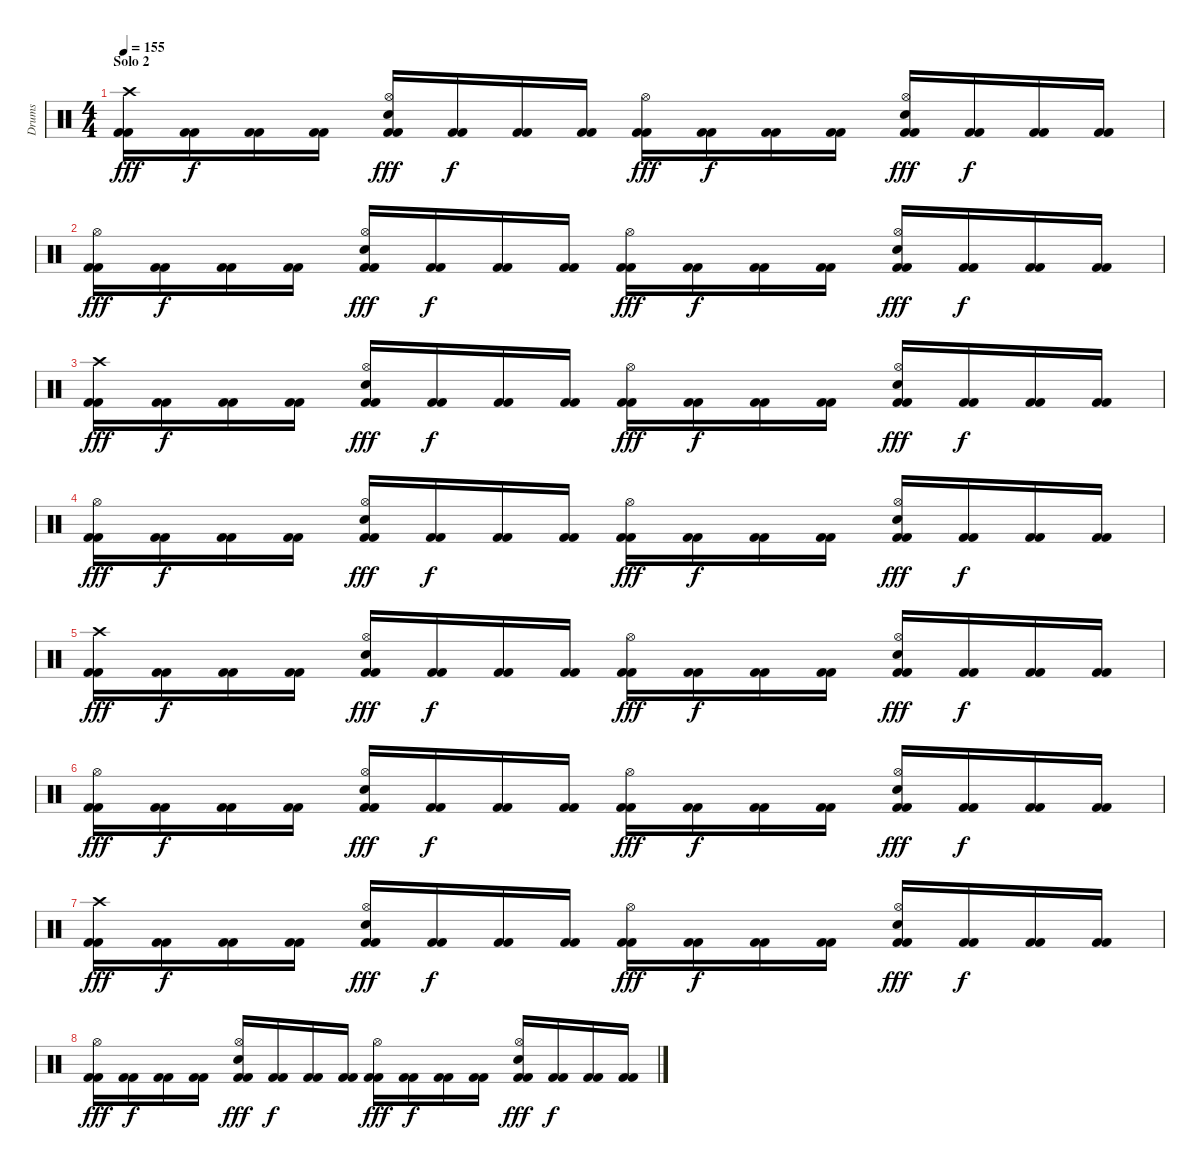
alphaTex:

\track ("Drums" "Drums") {instrument percussion}
\staff {score}
\articulation defaults
\ts (4 4)
\section ("" "Solo 2")
\tempo 155
\clef neutral
\ks c
("Crash high (hit)" "Kick (hit) 2" "Kick (hit) 2").16{dy fff} ("Kick (hit) 2" "Kick (hit) 2").16{dy f} ("Kick (hit) 2" "Kick (hit) 2").16 ("Kick (hit) 2" "Kick (hit) 2").16 ("Hi-Hat (open)" "Kick (hit) 2" "Kick (hit) 2" "Snare (hit) 2").16{dy fff} ("Kick (hit) 2" "Kick (hit) 2").16{dy f} ("Kick (hit) 2" "Kick (hit) 2").16 ("Kick (hit) 2" "Kick (hit) 2").16 ("Hi-Hat (open)" "Kick (hit) 2" "Kick (hit) 2").16{dy fff} ("Kick (hit) 2" "Kick (hit) 2").16{dy f} ("Kick (hit) 2" "Kick (hit) 2").16 ("Kick (hit) 2" "Kick (hit) 2").16 ("Hi-Hat (open)" "Kick (hit) 2" "Kick (hit) 2" "Snare (hit) 2").16{dy fff} ("Kick (hit) 2" "Kick (hit) 2").16{dy f} ("Kick (hit) 2" "Kick (hit) 2").16 ("Kick (hit) 2" "Kick (hit) 2").16 |
("Hi-Hat (open)" "Kick (hit) 2" "Kick (hit) 2").16{dy fff} ("Kick (hit) 2" "Kick (hit) 2").16{dy f} ("Kick (hit) 2" "Kick (hit) 2").16 ("Kick (hit) 2" "Kick (hit) 2").16 ("Hi-Hat (open)" "Kick (hit) 2" "Kick (hit) 2" "Snare (hit) 2").16{dy fff} ("Kick (hit) 2" "Kick (hit) 2").16{dy f} ("Kick (hit) 2" "Kick (hit) 2").16 ("Kick (hit) 2" "Kick (hit) 2").16 ("Hi-Hat (open)" "Kick (hit) 2" "Kick (hit) 2").16{dy fff} ("Kick (hit) 2" "Kick (hit) 2").16{dy f} ("Kick (hit) 2" "Kick (hit) 2").16 ("Kick (hit) 2" "Kick (hit) 2").16 ("Hi-Hat (open)" "Kick (hit) 2" "Kick (hit) 2" "Snare (hit) 2").16{dy fff} ("Kick (hit) 2" "Kick (hit) 2").16{dy f} ("Kick (hit) 2" "Kick (hit) 2").16 ("Kick (hit) 2" "Kick (hit) 2").16 |
("Crash high (hit)" "Kick (hit) 2" "Kick (hit) 2").16{dy fff} ("Kick (hit) 2" "Kick (hit) 2").16{dy f} ("Kick (hit) 2" "Kick (hit) 2").16 ("Kick (hit) 2" "Kick (hit) 2").16 ("Hi-Hat (open)" "Kick (hit) 2" "Kick (hit) 2" "Snare (hit) 2").16{dy fff} ("Kick (hit) 2" "Kick (hit) 2").16{dy f} ("Kick (hit) 2" "Kick (hit) 2").16 ("Kick (hit) 2" "Kick (hit) 2").16 ("Hi-Hat (open)" "Kick (hit) 2" "Kick (hit) 2").16{dy fff} ("Kick (hit) 2" "Kick (hit) 2").16{dy f} ("Kick (hit) 2" "Kick (hit) 2").16 ("Kick (hit) 2" "Kick (hit) 2").16 ("Hi-Hat (open)" "Kick (hit) 2" "Kick (hit) 2" "Snare (hit) 2").16{dy fff} ("Kick (hit) 2" "Kick (hit) 2").16{dy f} ("Kick (hit) 2" "Kick (hit) 2").16 ("Kick (hit) 2" "Kick (hit) 2").16 |
("Hi-Hat (open)" "Kick (hit) 2" "Kick (hit) 2").16{dy fff} ("Kick (hit) 2" "Kick (hit) 2").16{dy f} ("Kick (hit) 2" "Kick (hit) 2").16 ("Kick (hit) 2" "Kick (hit) 2").16 ("Hi-Hat (open)" "Kick (hit) 2" "Kick (hit) 2" "Snare (hit) 2").16{dy fff} ("Kick (hit) 2" "Kick (hit) 2").16{dy f} ("Kick (hit) 2" "Kick (hit) 2").16 ("Kick (hit) 2" "Kick (hit) 2").16 ("Hi-Hat (open)" "Kick (hit) 2" "Kick (hit) 2").16{dy fff} ("Kick (hit) 2" "Kick (hit) 2").16{dy f} ("Kick (hit) 2" "Kick (hit) 2").16 ("Kick (hit) 2" "Kick (hit) 2").16 ("Hi-Hat (open)" "Kick (hit) 2" "Kick (hit) 2" "Snare (hit) 2").16{dy fff} ("Kick (hit) 2" "Kick (hit) 2").16{dy f} ("Kick (hit) 2" "Kick (hit) 2").16 ("Kick (hit) 2" "Kick (hit) 2").16 |
("Crash high (hit)" "Kick (hit) 2" "Kick (hit) 2").16{dy fff} ("Kick (hit) 2" "Kick (hit) 2").16{dy f} ("Kick (hit) 2" "Kick (hit) 2").16 ("Kick (hit) 2" "Kick (hit) 2").16 ("Hi-Hat (open)" "Kick (hit) 2" "Kick (hit) 2" "Snare (hit) 2").16{dy fff} ("Kick (hit) 2" "Kick (hit) 2").16{dy f} ("Kick (hit) 2" "Kick (hit) 2").16 ("Kick (hit) 2" "Kick (hit) 2").16 ("Hi-Hat (open)" "Kick (hit) 2" "Kick (hit) 2").16{dy fff} ("Kick (hit) 2" "Kick (hit) 2").16{dy f} ("Kick (hit) 2" "Kick (hit) 2").16 ("Kick (hit) 2" "Kick (hit) 2").16 ("Hi-Hat (open)" "Kick (hit) 2" "Kick (hit) 2" "Snare (hit) 2").16{dy fff} ("Kick (hit) 2" "Kick (hit) 2").16{dy f} ("Kick (hit) 2" "Kick (hit) 2").16 ("Kick (hit) 2" "Kick (hit) 2").16 |
("Hi-Hat (open)" "Kick (hit) 2" "Kick (hit) 2").16{dy fff} ("Kick (hit) 2" "Kick (hit) 2").16{dy f} ("Kick (hit) 2" "Kick (hit) 2").16 ("Kick (hit) 2" "Kick (hit) 2").16 ("Hi-Hat (open)" "Kick (hit) 2" "Kick (hit) 2" "Snare (hit) 2").16{dy fff} ("Kick (hit) 2" "Kick (hit) 2").16{dy f} ("Kick (hit) 2" "Kick (hit) 2").16 ("Kick (hit) 2" "Kick (hit) 2").16 ("Hi-Hat (open)" "Kick (hit) 2" "Kick (hit) 2").16{dy fff} ("Kick (hit) 2" "Kick (hit) 2").16{dy f} ("Kick (hit) 2" "Kick (hit) 2").16 ("Kick (hit) 2" "Kick (hit) 2").16 ("Hi-Hat (open)" "Kick (hit) 2" "Kick (hit) 2" "Snare (hit) 2").16{dy fff} ("Kick (hit) 2" "Kick (hit) 2").16{dy f} ("Kick (hit) 2" "Kick (hit) 2").16 ("Kick (hit) 2" "Kick (hit) 2").16 |
("Crash high (hit)" "Kick (hit) 2" "Kick (hit) 2").16{dy fff} ("Kick (hit) 2" "Kick (hit) 2").16{dy f} ("Kick (hit) 2" "Kick (hit) 2").16 ("Kick (hit) 2" "Kick (hit) 2").16 ("Hi-Hat (open)" "Kick (hit) 2" "Kick (hit) 2" "Snare (hit) 2").16{dy fff} ("Kick (hit) 2" "Kick (hit) 2").16{dy f} ("Kick (hit) 2" "Kick (hit) 2").16 ("Kick (hit) 2" "Kick (hit) 2").16 ("Hi-Hat (open)" "Kick (hit) 2" "Kick (hit) 2").16{dy fff} ("Kick (hit) 2" "Kick (hit) 2").16{dy f} ("Kick (hit) 2" "Kick (hit) 2").16 ("Kick (hit) 2" "Kick (hit) 2").16 ("Hi-Hat (open)" "Kick (hit) 2" "Kick (hit) 2" "Snare (hit) 2").16{dy fff} ("Kick (hit) 2" "Kick (hit) 2").16{dy f} ("Kick (hit) 2" "Kick (hit) 2").16 ("Kick (hit) 2" "Kick (hit) 2").16 |
("Hi-Hat (open)" "Kick (hit) 2" "Kick (hit) 2").16{dy fff} ("Kick (hit) 2" "Kick (hit) 2").16{dy f} ("Kick (hit) 2" "Kick (hit) 2").16 ("Kick (hit) 2" "Kick (hit) 2").16 ("Hi-Hat (open)" "Kick (hit) 2" "Kick (hit) 2" "Snare (hit) 2").16{dy fff} ("Kick (hit) 2" "Kick (hit) 2").16{dy f} ("Kick (hit) 2" "Kick (hit) 2").16 ("Kick (hit) 2" "Kick (hit) 2").16 ("Hi-Hat (open)" "Kick (hit) 2" "Kick (hit) 2").16{dy fff} ("Kick (hit) 2" "Kick (hit) 2").16{dy f} ("Kick (hit) 2" "Kick (hit) 2").16 ("Kick (hit) 2" "Kick (hit) 2").16 ("Hi-Hat (open)" "Kick (hit) 2" "Kick (hit) 2" "Snare (hit) 2").16{dy fff} ("Kick (hit) 2" "Kick (hit) 2").16{dy f} ("Kick (hit) 2" "Kick (hit) 2").16 ("Kick (hit) 2" "Kick (hit) 2").16
